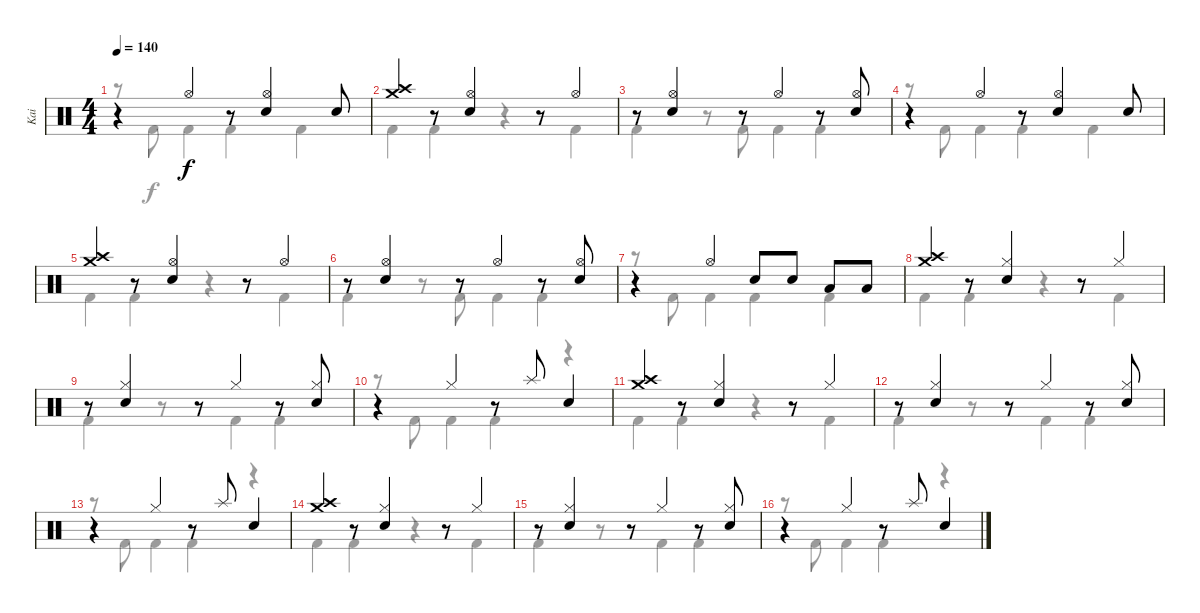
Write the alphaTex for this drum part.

\track ("Kai" "Kai") {instrument percussion}
\staff {score}
\articulation defaults
\voice
\ts (4 4)
\tempo 140
\clef neutral
\ks c
r.4{dy f} "Hi-Hat (open)".4 r.8 ("Hi-Hat (open)" "Snare (hit) 2").4 "Snare (hit) 2".8 |
("Crash medium (hit)" "Crash high (hit)").4 r.8 ("Hi-Hat (open)" "Snare (hit) 2").4 r.8 "Hi-Hat (open)".4 |
r.8 ("Hi-Hat (open)" "Snare (hit) 2").4 r.8 "Hi-Hat (open)".4 r.8 ("Hi-Hat (open)" "Snare (hit) 2").8 |
r.4 "Hi-Hat (open)".4 r.8 ("Hi-Hat (open)" "Snare (hit) 2").4 "Snare (hit) 2".8 |
("Crash medium (hit)" "Crash high (hit)").4 r.8 ("Hi-Hat (open)" "Snare (hit) 2").4 r.8 "Hi-Hat (open)".4 |
r.8 ("Hi-Hat (open)" "Snare (hit) 2").4 r.8 "Hi-Hat (open)".4 r.8 ("Hi-Hat (open)" "Snare (hit) 2").8 |
r.4 "Hi-Hat (open)".4 "Snare (hit) 2".8 "Snare (hit) 2".8 "Low Tom (hit)".8 "Low Tom (hit)".8 |
("Crash medium (hit)" "Crash high (hit)").4 r.8 ("Hi-Hat (closed)" "Snare (hit) 2").4 r.8 "Hi-Hat (closed)".4 |
r.8 ("Hi-Hat (closed)" "Snare (hit) 2").4 r.8 "Hi-Hat (closed)".4 r.8 ("Hi-Hat (closed)" "Snare (hit) 2").8 |
r.4 "Hi-Hat (closed)".4 r.8 "Splash (hit)".8 "Snare (hit) 2".4 |
("Crash medium (hit)" "Crash high (hit)").4 r.8 ("Hi-Hat (closed)" "Snare (hit) 2").4 r.8 "Hi-Hat (closed)".4 |
r.8 ("Hi-Hat (closed)" "Snare (hit) 2").4 r.8 "Hi-Hat (closed)".4 r.8 ("Hi-Hat (closed)" "Snare (hit) 2").8 |
r.4 "Hi-Hat (closed)".4 r.8 "Splash (hit)".8 "Snare (hit) 2".4 |
("Crash medium (hit)" "Crash high (hit)").4 r.8 ("Hi-Hat (closed)" "Snare (hit) 2").4 r.8 "Hi-Hat (closed)".4 |
r.8 ("Hi-Hat (closed)" "Snare (hit) 2").4 r.8 "Hi-Hat (closed)".4 r.8 ("Hi-Hat (closed)" "Snare (hit) 2").8 |
r.4 "Hi-Hat (closed)".4 r.8 "Splash (hit)".8 "Snare (hit) 2".4
\voice
\clef neutral
\ottava regular
\simile none
\ks c
r.8{dy f} "Kick (hit) 2".8 "Kick (hit) 2".4 "Kick (hit) 2".4 "Kick (hit) 2".4 |
"Kick (hit) 2".4 "Kick (hit) 2".4 r.4 "Kick (hit) 2".4 |
"Kick (hit) 2".4 r.8 "Kick (hit) 2".8 "Kick (hit) 2".4 "Kick (hit) 2".4 |
r.8 "Kick (hit) 2".8 "Kick (hit) 2".4 "Kick (hit) 2".4 "Kick (hit) 2".4 |
"Kick (hit) 2".4 "Kick (hit) 2".4 r.4 "Kick (hit) 2".4 |
"Kick (hit) 2".4 r.8 "Kick (hit) 2".8 "Kick (hit) 2".4 "Kick (hit) 2".4 |
r.8 "Kick (hit) 2".8 "Kick (hit) 2".4 "Kick (hit) 2".4 "Kick (hit) 2".4 |
"Kick (hit) 2".4 "Kick (hit) 2".4 r.4 "Kick (hit) 2".4 |
"Kick (hit) 2".4 r.8 r.8 "Kick (hit) 2".4 "Kick (hit) 2".4 |
r.8 "Kick (hit) 2".8 "Kick (hit) 2".4 "Kick (hit) 2".4 r.4 |
"Kick (hit) 2".4 "Kick (hit) 2".4 r.4 "Kick (hit) 2".4 |
"Kick (hit) 2".4 r.8 r.8 "Kick (hit) 2".4 "Kick (hit) 2".4 |
r.8 "Kick (hit) 2".8 "Kick (hit) 2".4 "Kick (hit) 2".4 r.4 |
"Kick (hit) 2".4 "Kick (hit) 2".4 r.4 "Kick (hit) 2".4 |
"Kick (hit) 2".4 r.8 r.8 "Kick (hit) 2".4 "Kick (hit) 2".4 |
r.8 "Kick (hit) 2".8 "Kick (hit) 2".4 "Kick (hit) 2".4 r.4
